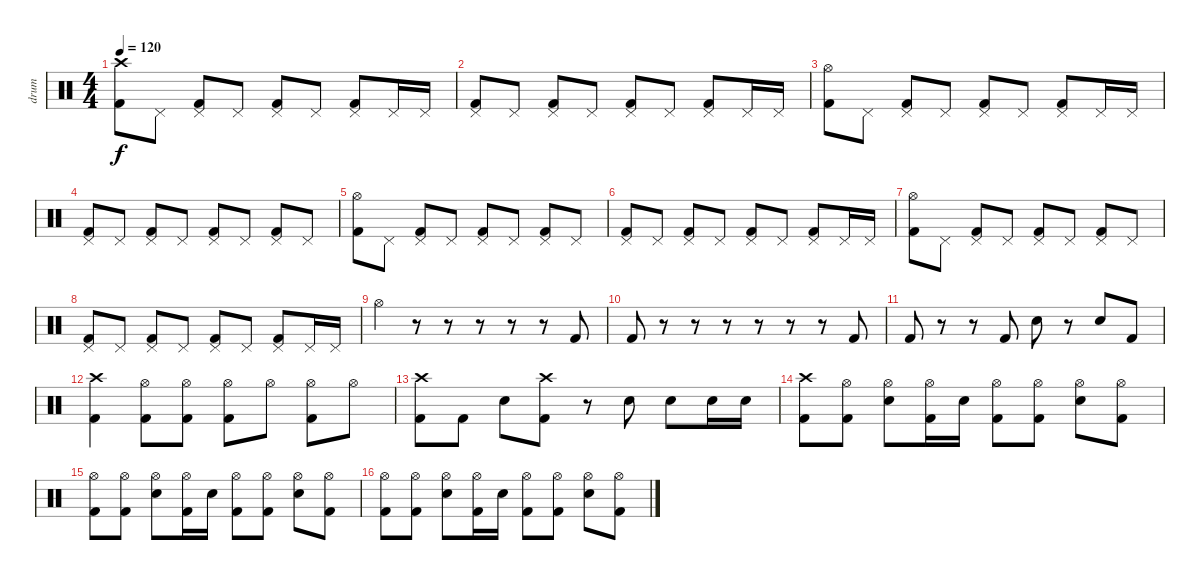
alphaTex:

\track ("drum" "drum") {instrument percussion}
\staff {score}
\articulation defaults
\ts (4 4)
\tempo 120
\clef neutral
\ks c
("Crash high (hit)" "Kick (hit) 2").8{dy f} "Pedal Hi-Hat (hit)".8 ("Pedal Hi-Hat (hit)" "Kick (hit) 2").8 "Pedal Hi-Hat (hit)".8 ("Pedal Hi-Hat (hit)" "Kick (hit) 2").8 "Pedal Hi-Hat (hit)".8 ("Pedal Hi-Hat (hit)" "Kick (hit) 2").8 "Pedal Hi-Hat (hit)".16 "Pedal Hi-Hat (hit)".16 |
("Pedal Hi-Hat (hit)" "Kick (hit) 2").8 "Pedal Hi-Hat (hit)".8 ("Pedal Hi-Hat (hit)" "Kick (hit) 2").8 "Pedal Hi-Hat (hit)".8 ("Pedal Hi-Hat (hit)" "Kick (hit) 2").8 "Pedal Hi-Hat (hit)".8 ("Pedal Hi-Hat (hit)" "Kick (hit) 2").8 "Pedal Hi-Hat (hit)".16 "Pedal Hi-Hat (hit)".16 |
("Hi-Hat (open)" "Kick (hit) 2").8 "Pedal Hi-Hat (hit)".8 ("Pedal Hi-Hat (hit)" "Kick (hit) 2").8 "Pedal Hi-Hat (hit)".8 ("Pedal Hi-Hat (hit)" "Kick (hit) 2").8 "Pedal Hi-Hat (hit)".8 ("Pedal Hi-Hat (hit)" "Kick (hit) 2").8 "Pedal Hi-Hat (hit)".16 "Pedal Hi-Hat (hit)".16 |
("Pedal Hi-Hat (hit)" "Kick (hit) 2").8 "Pedal Hi-Hat (hit)".8 ("Pedal Hi-Hat (hit)" "Kick (hit) 2").8 "Pedal Hi-Hat (hit)".8 ("Pedal Hi-Hat (hit)" "Kick (hit) 2").8 "Pedal Hi-Hat (hit)".8 ("Pedal Hi-Hat (hit)" "Kick (hit) 2").8 "Pedal Hi-Hat (hit)".8 |
("Hi-Hat (open)" "Kick (hit) 2").8 "Pedal Hi-Hat (hit)".8 ("Pedal Hi-Hat (hit)" "Kick (hit) 2").8 "Pedal Hi-Hat (hit)".8 ("Pedal Hi-Hat (hit)" "Kick (hit) 2").8 "Pedal Hi-Hat (hit)".8 ("Pedal Hi-Hat (hit)" "Kick (hit) 2").8 "Pedal Hi-Hat (hit)".8 |
("Pedal Hi-Hat (hit)" "Kick (hit) 2").8 "Pedal Hi-Hat (hit)".8 ("Pedal Hi-Hat (hit)" "Kick (hit) 2").8 "Pedal Hi-Hat (hit)".8 ("Pedal Hi-Hat (hit)" "Kick (hit) 2").8 "Pedal Hi-Hat (hit)".8 ("Pedal Hi-Hat (hit)" "Kick (hit) 2").8 "Pedal Hi-Hat (hit)".16 "Pedal Hi-Hat (hit)".16 |
("Hi-Hat (open)" "Kick (hit) 2").8 "Pedal Hi-Hat (hit)".8 ("Pedal Hi-Hat (hit)" "Kick (hit) 2").8 "Pedal Hi-Hat (hit)".8 ("Pedal Hi-Hat (hit)" "Kick (hit) 2").8 "Pedal Hi-Hat (hit)".8 ("Pedal Hi-Hat (hit)" "Kick (hit) 2").8 "Pedal Hi-Hat (hit)".8 |
("Pedal Hi-Hat (hit)" "Kick (hit) 2").8 "Pedal Hi-Hat (hit)".8 ("Pedal Hi-Hat (hit)" "Kick (hit) 2").8 "Pedal Hi-Hat (hit)".8 ("Pedal Hi-Hat (hit)" "Kick (hit) 2").8 "Pedal Hi-Hat (hit)".8 ("Pedal Hi-Hat (hit)" "Kick (hit) 2").8 "Pedal Hi-Hat (hit)".16 "Pedal Hi-Hat (hit)".16 |
"Hi-Hat (open)".4 r.8 r.8 r.8 r.8 r.8 "Kick (hit) 2".8 |
"Kick (hit) 2".8 r.8 r.8 r.8 r.8 r.8 r.8 "Kick (hit) 2".8 |
"Kick (hit) 2".8 r.8 r.8 "Kick (hit) 2".8 "Snare (hit) 2".8 r.8 "Snare (hit) 2".8 "Kick (hit) 2".8 |
("Crash high (hit)" "Kick (hit) 2").4 ("Hi-Hat (open)" "Kick (hit) 2").8{volume 3} ("Hi-Hat (open)" "Kick (hit) 2").8{volume 12} ("Hi-Hat (open)" "Kick (hit) 2").8 "Hi-Hat (open)".8 ("Hi-Hat (open)" "Kick (hit) 2").8 "Hi-Hat (open)".8 |
("Crash high (hit)" "Kick (hit) 2").8 "Kick (hit) 2".8 "Snare (hit) 2".8 ("Crash high (hit)" "Kick (hit) 2").8 r.8 "Snare (hit) 2".8 "Snare (hit) 2".8 "Snare (hit) 2".16 "Snare (hit) 2".16 |
("Crash high (hit)" "Kick (hit) 2").8 ("Hi-Hat (open)" "Kick (hit) 2").8 ("Hi-Hat (open)" "Snare (hit) 2").8 ("Hi-Hat (open)" "Kick (hit) 2").16 "Snare (hit) 2".16 ("Hi-Hat (open)" "Kick (hit) 2").8 ("Hi-Hat (open)" "Kick (hit) 2").8 ("Hi-Hat (open)" "Snare (hit) 2").8 ("Hi-Hat (open)" "Kick (hit) 2").8 |
("Hi-Hat (open)" "Kick (hit) 2").8 ("Hi-Hat (open)" "Kick (hit) 2").8 ("Hi-Hat (open)" "Snare (hit) 2").8 ("Hi-Hat (open)" "Kick (hit) 2").16 "Snare (hit) 2".16 ("Hi-Hat (open)" "Kick (hit) 2").8 ("Hi-Hat (open)" "Kick (hit) 2").8 ("Hi-Hat (open)" "Snare (hit) 2").8 ("Hi-Hat (open)" "Kick (hit) 2").8 |
("Hi-Hat (open)" "Kick (hit) 2").8 ("Hi-Hat (open)" "Kick (hit) 2").8 ("Hi-Hat (open)" "Snare (hit) 2").8 ("Hi-Hat (open)" "Kick (hit) 2").16 "Snare (hit) 2".16 ("Hi-Hat (open)" "Kick (hit) 2").8 ("Hi-Hat (open)" "Kick (hit) 2").8 ("Hi-Hat (open)" "Snare (hit) 2").8 ("Hi-Hat (open)" "Kick (hit) 2").8
